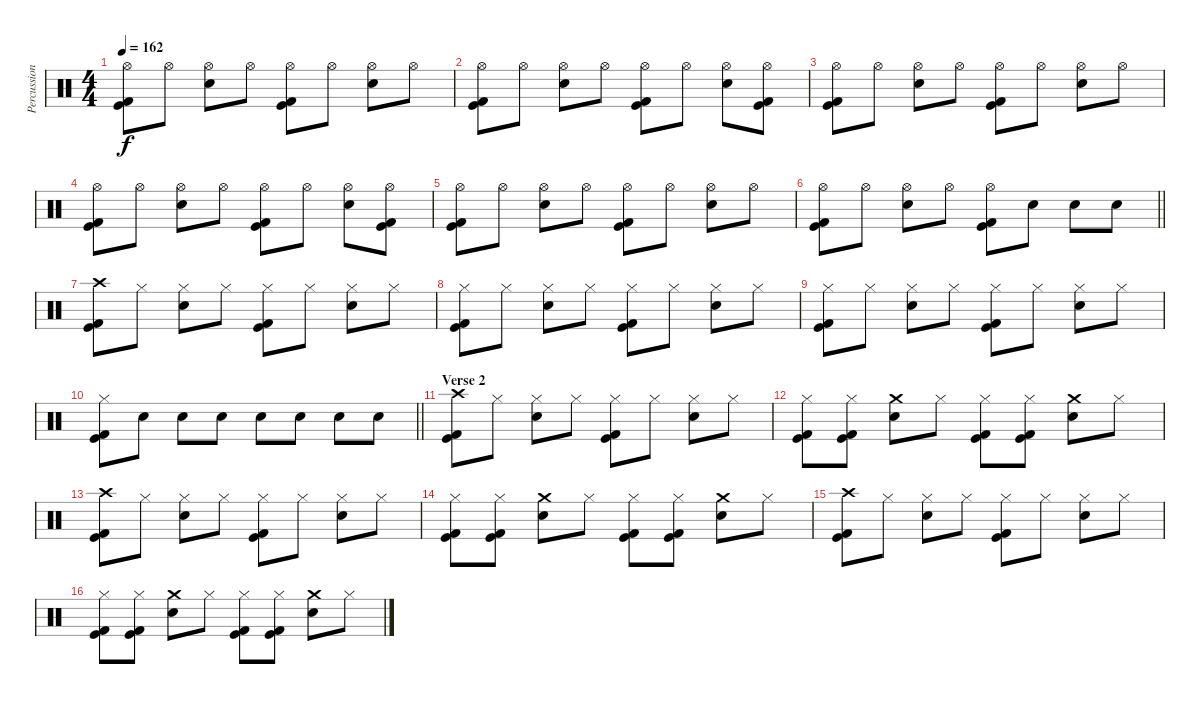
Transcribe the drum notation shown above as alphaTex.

\track ("Percussion" "Percussion") {instrument percussion}
\staff {score}
\articulation defaults
\ts (4 4)
\tempo 162
\clef neutral
\ks c
("Hi-Hat (open)" "Kick (hit)" "Kick (hit) 2").8{dy f} "Hi-Hat (open)".8 ("Hi-Hat (open)" "Electric Snare (hit)").8 "Hi-Hat (open)".8 ("Hi-Hat (open)" "Kick (hit)" "Kick (hit) 2").8 "Hi-Hat (open)".8 ("Hi-Hat (open)" "Electric Snare (hit)").8 "Hi-Hat (open)".8 |
("Hi-Hat (open)" "Kick (hit)" "Kick (hit) 2").8 "Hi-Hat (open)".8 ("Hi-Hat (open)" "Electric Snare (hit)").8 "Hi-Hat (open)".8 ("Hi-Hat (open)" "Kick (hit)" "Kick (hit) 2").8 "Hi-Hat (open)".8 ("Hi-Hat (open)" "Electric Snare (hit)").8 ("Hi-Hat (open)" "Kick (hit)" "Kick (hit) 2").8 |
("Hi-Hat (open)" "Kick (hit)" "Kick (hit) 2").8 "Hi-Hat (open)".8 ("Hi-Hat (open)" "Electric Snare (hit)").8 "Hi-Hat (open)".8 ("Hi-Hat (open)" "Kick (hit)" "Kick (hit) 2").8 "Hi-Hat (open)".8 ("Hi-Hat (open)" "Electric Snare (hit)").8 "Hi-Hat (open)".8 |
("Hi-Hat (open)" "Kick (hit)" "Kick (hit) 2").8 "Hi-Hat (open)".8 ("Hi-Hat (open)" "Electric Snare (hit)").8 "Hi-Hat (open)".8 ("Hi-Hat (open)" "Kick (hit)" "Kick (hit) 2").8 "Hi-Hat (open)".8 ("Hi-Hat (open)" "Electric Snare (hit)").8 ("Hi-Hat (open)" "Kick (hit)" "Kick (hit) 2").8 |
("Hi-Hat (open)" "Kick (hit)" "Kick (hit) 2").8 "Hi-Hat (open)".8 ("Hi-Hat (open)" "Electric Snare (hit)").8 "Hi-Hat (open)".8 ("Hi-Hat (open)" "Kick (hit)" "Kick (hit) 2").8 "Hi-Hat (open)".8 ("Hi-Hat (open)" "Electric Snare (hit)").8 "Hi-Hat (open)".8 |
\barLineRight lightlight
("Hi-Hat (open)" "Kick (hit)" "Kick (hit) 2").8 "Hi-Hat (open)".8 ("Hi-Hat (open)" "Electric Snare (hit)").8 "Hi-Hat (open)".8 ("Hi-Hat (open)" "Kick (hit)" "Kick (hit) 2").8 "Electric Snare (hit)".8 "Electric Snare (hit)".8 "Electric Snare (hit)".8 |
\section ("" "")
("Crash high (hit)" "Kick (hit)" "Kick (hit) 2").8 "Hi-Hat (closed)".8 ("Hi-Hat (closed)" "Electric Snare (hit)").8 "Hi-Hat (closed)".8 ("Hi-Hat (closed)" "Kick (hit)" "Kick (hit) 2").8 "Hi-Hat (closed)".8 ("Hi-Hat (closed)" "Electric Snare (hit)").8 "Hi-Hat (closed)".8 |
("Hi-Hat (closed)" "Kick (hit)" "Kick (hit) 2").8 "Hi-Hat (closed)".8 ("Hi-Hat (closed)" "Electric Snare (hit)").8 "Hi-Hat (closed)".8 ("Hi-Hat (closed)" "Kick (hit)" "Kick (hit) 2").8 "Hi-Hat (closed)".8 ("Hi-Hat (closed)" "Electric Snare (hit)").8 "Hi-Hat (closed)".8 |
("Hi-Hat (closed)" "Kick (hit)" "Kick (hit) 2").8 "Hi-Hat (closed)".8 ("Hi-Hat (closed)" "Electric Snare (hit)").8 "Hi-Hat (closed)".8 ("Hi-Hat (closed)" "Kick (hit)" "Kick (hit) 2").8 "Hi-Hat (closed)".8 ("Hi-Hat (closed)" "Electric Snare (hit)").8 "Hi-Hat (closed)".8 |
\barLineRight lightlight
("Hi-Hat (closed)" "Kick (hit)" "Kick (hit) 2").8 "Electric Snare (hit)".8 "Electric Snare (hit)".8 "Electric Snare (hit)".8 "Electric Snare (hit)".8 "Electric Snare (hit)".8 "Electric Snare (hit)".8 "Electric Snare (hit)".8 |
\section ("" "Verse 2")
("Crash high (hit)" "Kick (hit)" "Kick (hit) 2").8 "Hi-Hat (closed)".8 ("Hi-Hat (closed)" "Electric Snare (hit)").8 "Hi-Hat (closed)".8 ("Hi-Hat (closed)" "Kick (hit)" "Kick (hit) 2").8 "Hi-Hat (closed)".8 ("Hi-Hat (closed)" "Electric Snare (hit)").8 "Hi-Hat (closed)".8 |
("Hi-Hat (closed)" "Kick (hit)" "Kick (hit) 2").8 ("Hi-Hat (closed)" "Kick (hit)" "Kick (hit) 2").8 ("Crash medium (hit)" "Electric Snare (hit)").8 "Hi-Hat (closed)".8 ("Hi-Hat (closed)" "Kick (hit)" "Kick (hit) 2").8 ("Hi-Hat (closed)" "Kick (hit)" "Kick (hit) 2").8 ("Crash medium (hit)" "Electric Snare (hit)").8 "Hi-Hat (closed)".8 |
("Crash high (hit)" "Kick (hit)" "Kick (hit) 2").8 "Hi-Hat (closed)".8 ("Hi-Hat (closed)" "Electric Snare (hit)").8 "Hi-Hat (closed)".8 ("Hi-Hat (closed)" "Kick (hit)" "Kick (hit) 2").8 "Hi-Hat (closed)".8 ("Hi-Hat (closed)" "Electric Snare (hit)").8 "Hi-Hat (closed)".8 |
("Hi-Hat (closed)" "Kick (hit)" "Kick (hit) 2").8 ("Hi-Hat (closed)" "Kick (hit)" "Kick (hit) 2").8 ("Crash medium (hit)" "Electric Snare (hit)").8 "Hi-Hat (closed)".8 ("Hi-Hat (closed)" "Kick (hit)" "Kick (hit) 2").8 ("Hi-Hat (closed)" "Kick (hit)" "Kick (hit) 2").8 ("Crash medium (hit)" "Electric Snare (hit)").8 "Hi-Hat (closed)".8 |
("Crash high (hit)" "Kick (hit)" "Kick (hit) 2").8 "Hi-Hat (closed)".8 ("Hi-Hat (closed)" "Electric Snare (hit)").8 "Hi-Hat (closed)".8 ("Hi-Hat (closed)" "Kick (hit)" "Kick (hit) 2").8 "Hi-Hat (closed)".8 ("Hi-Hat (closed)" "Electric Snare (hit)").8 "Hi-Hat (closed)".8 |
("Hi-Hat (closed)" "Kick (hit)" "Kick (hit) 2").8 ("Hi-Hat (closed)" "Kick (hit)" "Kick (hit) 2").8 ("Crash medium (hit)" "Electric Snare (hit)").8 "Hi-Hat (closed)".8 ("Hi-Hat (closed)" "Kick (hit)" "Kick (hit) 2").8 ("Hi-Hat (closed)" "Kick (hit)" "Kick (hit) 2").8 ("Crash medium (hit)" "Electric Snare (hit)").8 "Hi-Hat (closed)".8
